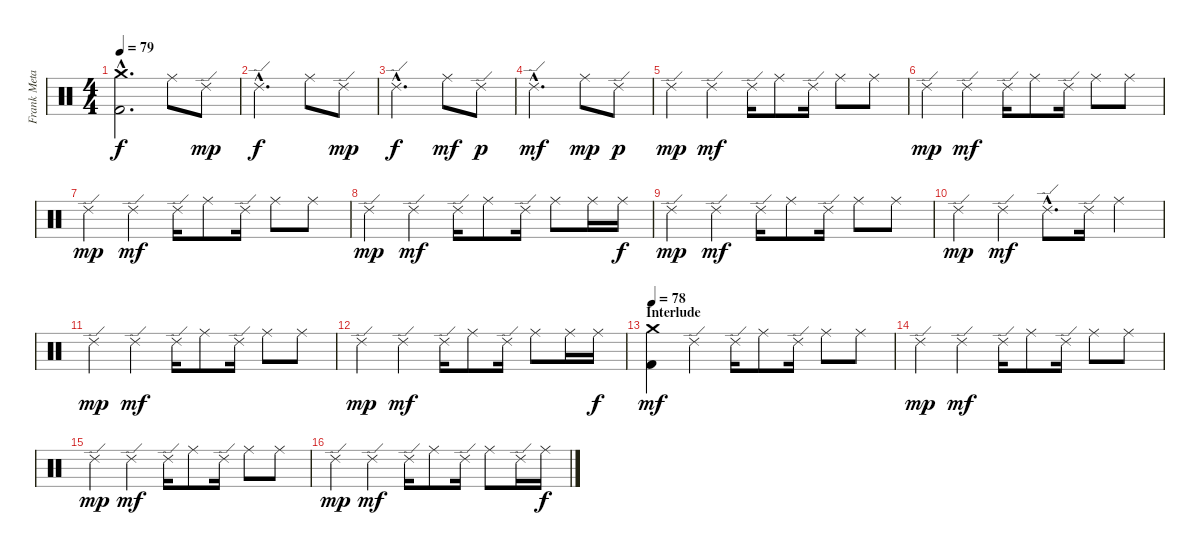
\track ("Frank Metayer" "Frank Meta") {instrument percussion}
\staff {score}
\articulation defaults
\ts (4 4)
\tempo 79
\clef neutral
\ks c
("Kick (hit) 2"{hac} "Crash medium (hit)"{hac}).2{d dy f} "Ride (middle)".8 "Ride (edge) 2".8{dy mp} |
"Ride (edge) 2"{hac}.2{d dy f} "Ride (middle)".8 "Ride (edge) 2".8{dy mp} |
"Ride (edge) 2"{hac}.2{d dy f} "Ride (middle)".8{dy mf} "Ride (edge) 2".8{dy p} |
"Ride (edge) 2"{hac}.2{d dy mf} "Ride (middle)".8{dy mp} "Ride (edge) 2".8{dy p} |
"Ride (edge) 2".4{dy mp} "Ride (edge) 2".4{dy mf} "Ride (edge) 2".16 "Ride (middle)".8 "Ride (edge) 2".16 "Ride (middle)".8 "Ride (middle)".8 |
"Ride (edge) 2".4{dy mp} "Ride (edge) 2".4{dy mf} "Ride (edge) 2".16 "Ride (middle)".8 "Ride (edge) 2".16 "Ride (middle)".8 "Ride (middle)".8 |
"Ride (edge) 2".4{dy mp} "Ride (edge) 2".4{dy mf} "Ride (edge) 2".16 "Ride (middle)".8 "Ride (edge) 2".16 "Ride (middle)".8 "Ride (middle)".8 |
"Ride (edge) 2".4{dy mp} "Ride (edge) 2".4{dy mf} "Ride (edge) 2".16 "Ride (middle)".8 "Ride (edge) 2".16 "Ride (middle)".8 "Ride (middle)".16 "Ride (middle)".16{dy f} |
"Ride (edge) 2".4{dy mp} "Ride (edge) 2".4{dy mf} "Ride (edge) 2".16 "Ride (middle)".8 "Ride (edge) 2".16 "Ride (middle)".8 "Ride (middle)".8 |
"Ride (edge) 2".4{dy mp} "Ride (edge) 2".4{dy mf} "Ride (edge) 2"{hac}.8{d} "Ride (edge) 2".16 "Ride (middle)".4 |
"Ride (edge) 2".4{dy mp} "Ride (edge) 2".4{dy mf} "Ride (edge) 2".16 "Ride (middle)".8 "Ride (edge) 2".16 "Ride (middle)".8 "Ride (middle)".8 |
"Ride (edge) 2".4{dy mp} "Ride (edge) 2".4{dy mf} "Ride (edge) 2".16 "Ride (middle)".8 "Ride (edge) 2".16 "Ride (middle)".8 "Ride (middle)".16 "Ride (middle)".16{dy f} |
\section ("" "Interlude")
\tempo 78
("Kick (hit) 2" "Crash medium (hit)").4{dy mf} "Ride (edge) 2".4 "Ride (edge) 2".16 "Ride (middle)".8 "Ride (edge) 2".16 "Ride (middle)".8 "Ride (middle)".8 |
"Ride (edge) 2".4{dy mp} "Ride (edge) 2".4{dy mf} "Ride (edge) 2".16 "Ride (middle)".8 "Ride (edge) 2".16 "Ride (middle)".8 "Ride (middle)".8 |
"Ride (edge) 2".4{dy mp} "Ride (edge) 2".4{dy mf} "Ride (edge) 2".16 "Ride (middle)".8 "Ride (edge) 2".16 "Ride (middle)".8 "Ride (middle)".8 |
"Ride (edge) 2".4{dy mp} "Ride (edge) 2".4{dy mf} "Ride (edge) 2".16 "Ride (middle)".8 "Ride (edge) 2".16 "Ride (middle)".8 "Ride (edge) 2".16 "Ride (middle)".16{dy f}
